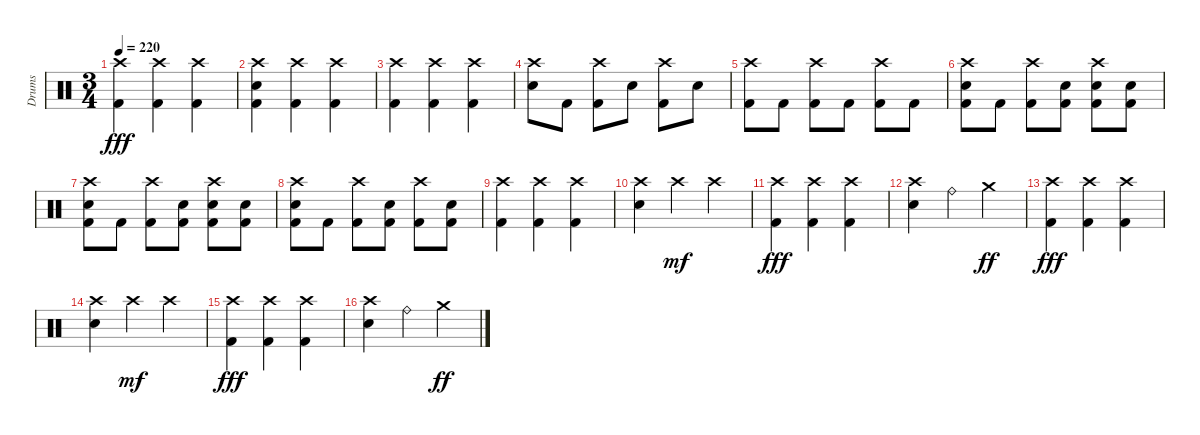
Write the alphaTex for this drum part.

\track ("Drums" "Drums") {instrument percussion}
\staff {score}
\articulation defaults
\ts (3 4)
\tempo 220
\clef neutral
\ks c
("Crash high (hit)" "Kick (hit) 2").4{dy fff} ("Crash high (hit)" "Kick (hit) 2").4 ("Crash high (hit)" "Kick (hit) 2").4 |
("Crash high (hit)" "Electric Snare (hit)" "Kick (hit) 2").4 ("Crash high (hit)" "Kick (hit) 2").4 ("Crash high (hit)" "Kick (hit) 2").4 |
("Crash high (hit)" "Kick (hit) 2").4 ("Crash high (hit)" "Kick (hit) 2").4 ("Crash high (hit)" "Kick (hit) 2").4 |
("Crash high (hit)" "Electric Snare (hit)").8 "Kick (hit) 2".8 ("Crash high (hit)" "Kick (hit) 2").8 "Electric Snare (hit)".8 ("Crash high (hit)" "Kick (hit) 2").8 "Electric Snare (hit)".8 |
("Crash high (hit)" "Kick (hit) 2").8 "Kick (hit) 2".8 ("Crash high (hit)" "Kick (hit) 2").8 "Kick (hit) 2".8 ("Crash high (hit)" "Kick (hit) 2").8 "Kick (hit) 2".8 |
("Crash high (hit)" "Electric Snare (hit)" "Kick (hit) 2").8 "Kick (hit) 2".8 ("Crash high (hit)" "Kick (hit) 2").8 ("Electric Snare (hit)" "Kick (hit) 2").8 ("Crash high (hit)" "Electric Snare (hit)" "Kick (hit) 2").8 ("Electric Snare (hit)" "Kick (hit) 2").8 |
("Crash high (hit)" "Electric Snare (hit)" "Kick (hit) 2").8 "Kick (hit) 2".8 ("Crash high (hit)" "Kick (hit) 2").8 ("Electric Snare (hit)" "Kick (hit) 2").8 ("Crash high (hit)" "Electric Snare (hit)" "Kick (hit) 2").8 ("Electric Snare (hit)" "Kick (hit) 2").8 |
("Crash high (hit)" "Electric Snare (hit)" "Kick (hit) 2").8 "Kick (hit) 2".8 ("Crash high (hit)" "Kick (hit) 2").8 ("Electric Snare (hit)" "Kick (hit) 2").8 ("Crash high (hit)" "Kick (hit) 2").8 ("Electric Snare (hit)" "Kick (hit) 2").8 |
("Crash high (hit)" "Kick (hit) 2").4 ("Crash high (hit)" "Kick (hit) 2").4 ("Crash high (hit)" "Kick (hit) 2").4 |
("Crash high (hit)" "Electric Snare (hit)").4 "Crash high (hit)".4{dy mf} "Crash high (hit)".4 |
("Crash high (hit)" "Kick (hit) 2").4{dy fff} ("Crash high (hit)" "Kick (hit) 2").4 ("Crash high (hit)" "Kick (hit) 2").4 |
("Crash high (hit)" "Electric Snare (hit)").4 "Ride (bell)".4 "Crash medium (hit)".4{dy ff} |
("Crash high (hit)" "Kick (hit) 2").4{dy fff} ("Crash high (hit)" "Kick (hit) 2").4 ("Crash high (hit)" "Kick (hit) 2").4 |
("Crash high (hit)" "Electric Snare (hit)").4 "Crash high (hit)".4{dy mf} "Crash high (hit)".4 |
("Crash high (hit)" "Kick (hit) 2").4{dy fff} ("Crash high (hit)" "Kick (hit) 2").4 ("Crash high (hit)" "Kick (hit) 2").4 |
("Crash high (hit)" "Electric Snare (hit)").4 "Ride (bell)".4 "Crash medium (hit)".4{dy ff}
